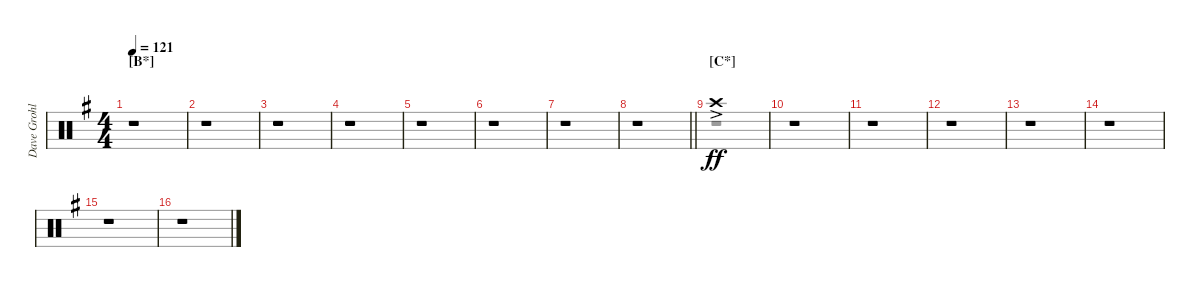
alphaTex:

\track ("Dave Grohl" "Dave Grohl") {instrument percussion}
\staff {score}
\articulation defaults
\voice
\ts (4 4)
\section ("" "[B*]")
\tempo 121
\clef neutral
\ks eminor
r.1{dy ff} |
r.1 |
r.1 |
r.1 |
r.1 |
r.1 |
r.1 |
\barLineRight lightlight
r.1 |
\section ("" "[C*]")
"Crash high (hit)"{ac}.1 |
r.1 |
r.1 |
r.1 |
r.1 |
r.1 |
r.1 |
r.1
\voice
\clef neutral
\ottava regular
\simile none
\ks eminor
r.1{dy f} |
r.1 |
r.1 |
r.1 |
r.1 |
r.1 |
r.1 |
\barLineRight lightlight
r.1 |
r.1 |
r.1 |
r.1 |
r.1 |
r.1 |
r.1 |
r.1 |
r.1
